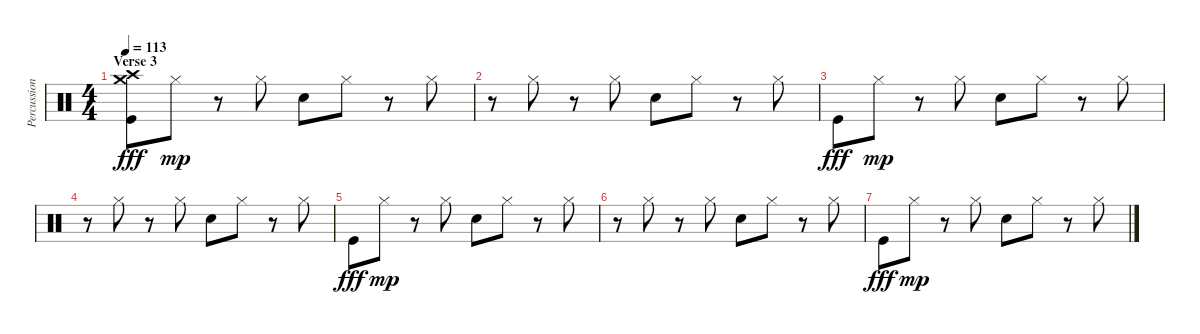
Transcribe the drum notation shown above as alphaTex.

\track ("Percussion" "Percussion") {instrument percussion}
\staff {score}
\articulation defaults
\ts (4 4)
\section ("" "Verse 3")
\tempo 113
\clef neutral
\ks c
("Crash high (hit)" "Crash medium (hit)" "Kick (hit)").8{dy fff volume 8} "Hi-Hat (closed)".8{dy mp} r.8 "Hi-Hat (closed)".8 "Electric Snare (hit)".8 "Hi-Hat (closed)".8 r.8 "Hi-Hat (closed)".8 |
r.8 "Hi-Hat (closed)".8 r.8 "Hi-Hat (closed)".8 "Electric Snare (hit)".8 "Hi-Hat (closed)".8 r.8 "Hi-Hat (closed)".8 |
"Kick (hit)".8{dy fff} "Hi-Hat (closed)".8{dy mp} r.8 "Hi-Hat (closed)".8 "Electric Snare (hit)".8 "Hi-Hat (closed)".8 r.8 "Hi-Hat (closed)".8 |
r.8 "Hi-Hat (closed)".8 r.8 "Hi-Hat (closed)".8 "Electric Snare (hit)".8 "Hi-Hat (closed)".8 r.8 "Hi-Hat (closed)".8 |
"Kick (hit)".8{dy fff} "Hi-Hat (closed)".8{dy mp} r.8 "Hi-Hat (closed)".8 "Electric Snare (hit)".8 "Hi-Hat (closed)".8 r.8 "Hi-Hat (closed)".8 |
r.8 "Hi-Hat (closed)".8 r.8 "Hi-Hat (closed)".8 "Electric Snare (hit)".8 "Hi-Hat (closed)".8 r.8 "Hi-Hat (closed)".8 |
"Kick (hit)".8{dy fff} "Hi-Hat (closed)".8{dy mp} r.8 "Hi-Hat (closed)".8 "Electric Snare (hit)".8 "Hi-Hat (closed)".8 r.8 "Hi-Hat (closed)".8
